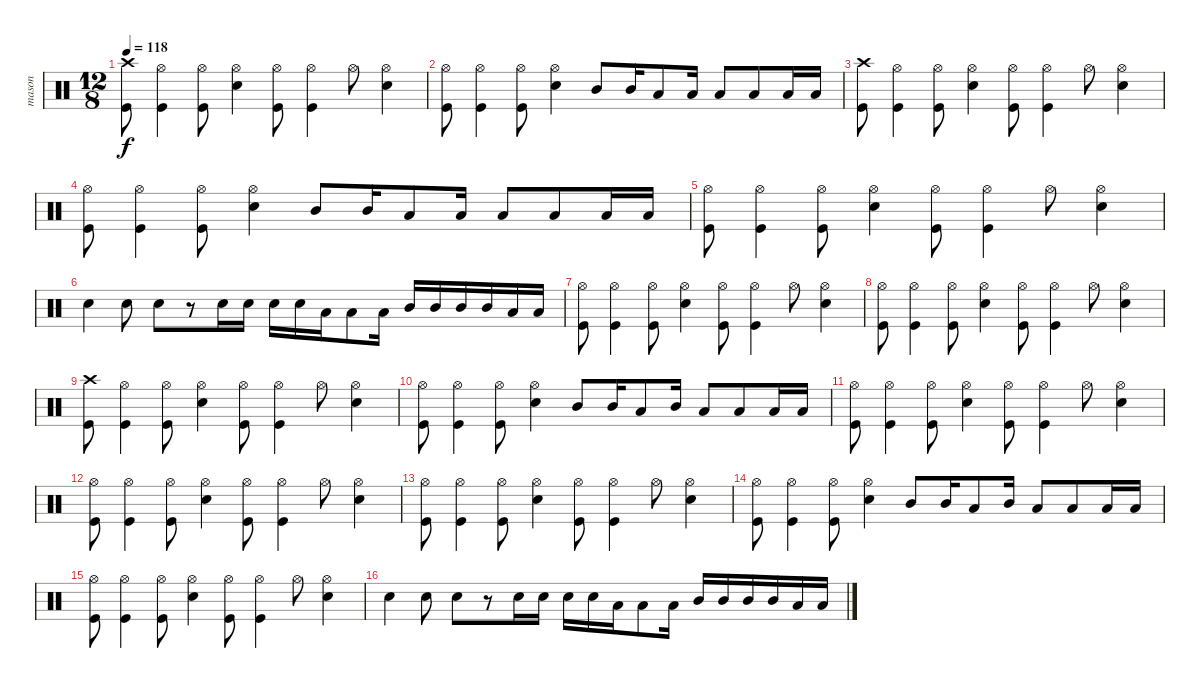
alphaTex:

\track ("mason" "mason") {instrument percussion}
\staff {score}
\articulation defaults
\ts (12 8)
\tempo 118
\clef neutral
\ks c
("Kick (hit)" "Crash high (hit)").8{dy f} ("Kick (hit)" "Hi-Hat (open)").4 ("Kick (hit)" "Hi-Hat (open)").8 ("Snare (hit) 2" "Hi-Hat (open)").4 ("Kick (hit)" "Hi-Hat (open)").8 ("Kick (hit)" "Hi-Hat (open)").4 "Hi-Hat (open)".8 ("Snare (hit) 2" "Hi-Hat (open)").4 |
("Kick (hit)" "Hi-Hat (open)").8 ("Kick (hit)" "Hi-Hat (open)").4 ("Kick (hit)" "Hi-Hat (open)").8 ("Snare (hit) 2" "Hi-Hat (open)").4 "Mid Tom (hit)".8 "Mid Tom (hit)".16 "Low Tom (hit)".8 "Low Tom (hit)".16 "Low Tom (hit)".8 "Low Floor Tom (hit)".8 "Low Floor Tom (hit)".16 "Low Floor Tom (hit)".16 |
("Kick (hit)" "Crash high (hit)").8 ("Kick (hit)" "Hi-Hat (open)").4 ("Kick (hit)" "Hi-Hat (open)").8 ("Snare (hit) 2" "Hi-Hat (open)").4 ("Kick (hit)" "Hi-Hat (open)").8 ("Kick (hit)" "Hi-Hat (open)").4 "Hi-Hat (open)".8 ("Snare (hit) 2" "Hi-Hat (open)").4 |
("Kick (hit)" "Hi-Hat (open)").8 ("Kick (hit)" "Hi-Hat (open)").4 ("Kick (hit)" "Hi-Hat (open)").8 ("Snare (hit) 2" "Hi-Hat (open)").4 "Mid Tom (hit)".8 "Mid Tom (hit)".16 "Low Tom (hit)".8 "Low Tom (hit)".16 "Low Tom (hit)".8 "Low Floor Tom (hit)".8 "Low Floor Tom (hit)".16 "Low Floor Tom (hit)".16 |
("Kick (hit)" "Hi-Hat (open)").8 ("Kick (hit)" "Hi-Hat (open)").4 ("Kick (hit)" "Hi-Hat (open)").8 ("Snare (hit) 2" "Hi-Hat (open)").4 ("Kick (hit)" "Hi-Hat (open)").8 ("Kick (hit)" "Hi-Hat (open)").4 "Hi-Hat (open)".8 ("Snare (hit) 2" "Hi-Hat (open)").4 |
"Snare (hit) 2".4 "Snare (hit) 2".8 "Snare (hit) 2".8 r.8 "Snare (hit) 2".16 "Snare (hit) 2".16 "Snare (hit) 2".16 "Snare (hit) 2".16 "Low Tom (hit)".16 "Low Tom (hit)".8 "Low Tom (hit)".16 "Mid Tom (hit)".16 "Mid Tom (hit)".16 "Mid Tom (hit)".16 "Mid Tom (hit)".16 "Low Floor Tom (hit)".16 "Low Floor Tom (hit)".16 |
("Kick (hit)" "Hi-Hat (open)").8 ("Kick (hit)" "Hi-Hat (open)").4 ("Kick (hit)" "Hi-Hat (open)").8 ("Snare (hit) 2" "Hi-Hat (open)").4 ("Kick (hit)" "Hi-Hat (open)").8 ("Kick (hit)" "Hi-Hat (open)").4 "Hi-Hat (open)".8 ("Snare (hit) 2" "Hi-Hat (open)").4 |
("Kick (hit)" "Hi-Hat (open)").8 ("Kick (hit)" "Hi-Hat (open)").4 ("Kick (hit)" "Hi-Hat (open)").8 ("Snare (hit) 2" "Hi-Hat (open)").4 ("Kick (hit)" "Hi-Hat (open)").8 ("Kick (hit)" "Hi-Hat (open)").4 "Hi-Hat (open)".8 ("Snare (hit) 2" "Hi-Hat (open)").4 |
("Kick (hit)" "Crash high (hit)").8 ("Kick (hit)" "Hi-Hat (open)").4 ("Kick (hit)" "Hi-Hat (open)").8 ("Snare (hit) 2" "Hi-Hat (open)").4 ("Kick (hit)" "Hi-Hat (open)").8 ("Kick (hit)" "Hi-Hat (open)").4 "Hi-Hat (open)".8 ("Snare (hit) 2" "Hi-Hat (open)").4 |
("Kick (hit)" "Hi-Hat (open)").8 ("Kick (hit)" "Hi-Hat (open)").4 ("Kick (hit)" "Hi-Hat (open)").8 ("Snare (hit) 2" "Hi-Hat (open)").4 "Mid Tom (hit)".8 "Mid Tom (hit)".16 "Low Tom (hit)".8 "Mid Tom (hit)".16 "Low Tom (hit)".8 "Low Floor Tom (hit)".8 "Low Floor Tom (hit)".16 "Low Floor Tom (hit)".16 |
("Kick (hit)" "Hi-Hat (open)").8 ("Kick (hit)" "Hi-Hat (open)").4 ("Kick (hit)" "Hi-Hat (open)").8 ("Snare (hit) 2" "Hi-Hat (open)").4 ("Kick (hit)" "Hi-Hat (open)").8 ("Kick (hit)" "Hi-Hat (open)").4 "Hi-Hat (open)".8 ("Snare (hit) 2" "Hi-Hat (open)").4 |
("Kick (hit)" "Hi-Hat (open)").8 ("Kick (hit)" "Hi-Hat (open)").4 ("Kick (hit)" "Hi-Hat (open)").8 ("Snare (hit) 2" "Hi-Hat (open)").4 ("Kick (hit)" "Hi-Hat (open)").8 ("Kick (hit)" "Hi-Hat (open)").4 "Hi-Hat (open)".8 ("Snare (hit) 2" "Hi-Hat (open)").4 |
("Kick (hit)" "Hi-Hat (open)").8 ("Kick (hit)" "Hi-Hat (open)").4 ("Kick (hit)" "Hi-Hat (open)").8 ("Snare (hit) 2" "Hi-Hat (open)").4 ("Kick (hit)" "Hi-Hat (open)").8 ("Kick (hit)" "Hi-Hat (open)").4 "Hi-Hat (open)".8 ("Snare (hit) 2" "Hi-Hat (open)").4 |
("Kick (hit)" "Hi-Hat (open)").8 ("Kick (hit)" "Hi-Hat (open)").4 ("Kick (hit)" "Hi-Hat (open)").8 ("Snare (hit) 2" "Hi-Hat (open)").4 "Mid Tom (hit)".8 "Mid Tom (hit)".16 "Low Tom (hit)".8 "Mid Tom (hit)".16 "Low Tom (hit)".8 "Low Floor Tom (hit)".8 "Low Floor Tom (hit)".16 "Low Floor Tom (hit)".16 |
("Kick (hit)" "Hi-Hat (open)").8 ("Kick (hit)" "Hi-Hat (open)").4 ("Kick (hit)" "Hi-Hat (open)").8 ("Snare (hit) 2" "Hi-Hat (open)").4 ("Kick (hit)" "Hi-Hat (open)").8 ("Kick (hit)" "Hi-Hat (open)").4 "Hi-Hat (open)".8 ("Snare (hit) 2" "Hi-Hat (open)").4 |
"Snare (hit) 2".4 "Snare (hit) 2".8 "Snare (hit) 2".8 r.8 "Snare (hit) 2".16 "Snare (hit) 2".16 "Snare (hit) 2".16 "Snare (hit) 2".16 "Low Tom (hit)".16 "Low Tom (hit)".8 "Low Tom (hit)".16 "Mid Tom (hit)".16 "Mid Tom (hit)".16 "Mid Tom (hit)".16 "Mid Tom (hit)".16 "Low Floor Tom (hit)".16 "Low Floor Tom (hit)".16
